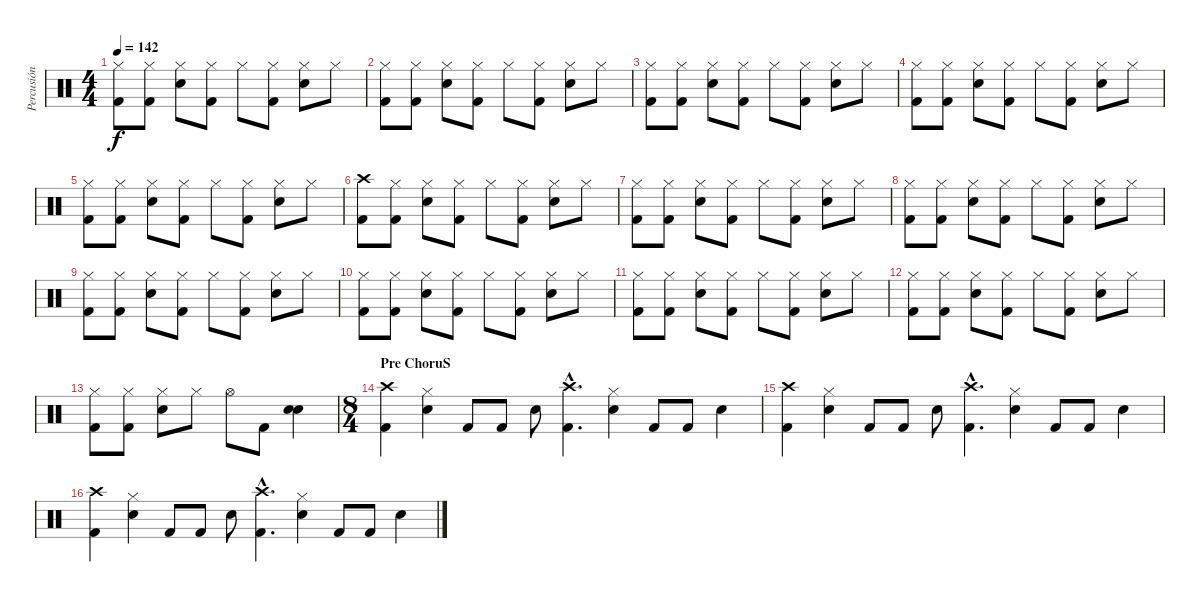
\track ("Percusión  " "Percusión ") {instrument percussion}
\staff {score}
\articulation defaults
\ts (4 4)
\tempo 142
\clef neutral
\ks c
("Hi-Hat (closed)" "Kick (hit) 2").8{dy f} ("Hi-Hat (closed)" "Kick (hit) 2").8 ("Electric Snare (hit)" "Hi-Hat (closed)").8 ("Hi-Hat (closed)" "Kick (hit) 2").8 "Hi-Hat (closed)".8 ("Hi-Hat (closed)" "Kick (hit) 2").8 ("Electric Snare (hit)" "Hi-Hat (closed)").8 "Hi-Hat (closed)".8 |
("Hi-Hat (closed)" "Kick (hit) 2").8 ("Hi-Hat (closed)" "Kick (hit) 2").8 ("Electric Snare (hit)" "Hi-Hat (closed)").8 ("Hi-Hat (closed)" "Kick (hit) 2").8 "Hi-Hat (closed)".8 ("Hi-Hat (closed)" "Kick (hit) 2").8 ("Electric Snare (hit)" "Hi-Hat (closed)").8 "Hi-Hat (closed)".8 |
("Hi-Hat (closed)" "Kick (hit) 2").8 ("Hi-Hat (closed)" "Kick (hit) 2").8 ("Electric Snare (hit)" "Hi-Hat (closed)").8 ("Hi-Hat (closed)" "Kick (hit) 2").8 "Hi-Hat (closed)".8 ("Hi-Hat (closed)" "Kick (hit) 2").8 ("Electric Snare (hit)" "Hi-Hat (closed)").8 "Hi-Hat (closed)".8 |
("Hi-Hat (closed)" "Kick (hit) 2").8 ("Hi-Hat (closed)" "Kick (hit) 2").8 ("Electric Snare (hit)" "Hi-Hat (closed)").8 ("Hi-Hat (closed)" "Kick (hit) 2").8 "Hi-Hat (closed)".8 ("Hi-Hat (closed)" "Kick (hit) 2").8 ("Electric Snare (hit)" "Hi-Hat (closed)").8 "Hi-Hat (closed)".8 |
("Hi-Hat (closed)" "Kick (hit) 2").8 ("Hi-Hat (closed)" "Kick (hit) 2").8 ("Electric Snare (hit)" "Hi-Hat (closed)").8 ("Hi-Hat (closed)" "Kick (hit) 2").8 "Hi-Hat (closed)".8 ("Hi-Hat (closed)" "Kick (hit) 2").8 ("Electric Snare (hit)" "Hi-Hat (closed)").8 "Hi-Hat (closed)".8 |
("Crash high (hit)" "Kick (hit) 2").8 ("Hi-Hat (closed)" "Kick (hit) 2").8 ("Electric Snare (hit)" "Hi-Hat (closed)").8 ("Hi-Hat (closed)" "Kick (hit) 2").8 "Hi-Hat (closed)".8 ("Hi-Hat (closed)" "Kick (hit) 2").8 ("Electric Snare (hit)" "Hi-Hat (closed)").8 "Hi-Hat (closed)".8 |
("Hi-Hat (closed)" "Kick (hit) 2").8 ("Hi-Hat (closed)" "Kick (hit) 2").8 ("Electric Snare (hit)" "Hi-Hat (closed)").8 ("Hi-Hat (closed)" "Kick (hit) 2").8 "Hi-Hat (closed)".8 ("Hi-Hat (closed)" "Kick (hit) 2").8 ("Electric Snare (hit)" "Hi-Hat (closed)").8 "Hi-Hat (closed)".8 |
("Hi-Hat (closed)" "Kick (hit) 2").8 ("Hi-Hat (closed)" "Kick (hit) 2").8 ("Electric Snare (hit)" "Hi-Hat (closed)").8 ("Hi-Hat (closed)" "Kick (hit) 2").8 "Hi-Hat (closed)".8 ("Hi-Hat (closed)" "Kick (hit) 2").8 ("Electric Snare (hit)" "Hi-Hat (closed)").8 "Hi-Hat (closed)".8 |
("Hi-Hat (closed)" "Kick (hit) 2").8 ("Hi-Hat (closed)" "Kick (hit) 2").8 ("Electric Snare (hit)" "Hi-Hat (closed)").8 ("Hi-Hat (closed)" "Kick (hit) 2").8 "Hi-Hat (closed)".8 ("Hi-Hat (closed)" "Kick (hit) 2").8 ("Electric Snare (hit)" "Hi-Hat (closed)").8 "Hi-Hat (closed)".8 |
("Hi-Hat (closed)" "Kick (hit) 2").8 ("Hi-Hat (closed)" "Kick (hit) 2").8 ("Electric Snare (hit)" "Hi-Hat (closed)").8 ("Hi-Hat (closed)" "Kick (hit) 2").8 "Hi-Hat (closed)".8 ("Hi-Hat (closed)" "Kick (hit) 2").8 ("Electric Snare (hit)" "Hi-Hat (closed)").8 "Hi-Hat (closed)".8 |
("Hi-Hat (closed)" "Kick (hit) 2").8 ("Hi-Hat (closed)" "Kick (hit) 2").8 ("Electric Snare (hit)" "Hi-Hat (closed)").8 ("Hi-Hat (closed)" "Kick (hit) 2").8 "Hi-Hat (closed)".8 ("Hi-Hat (closed)" "Kick (hit) 2").8 ("Electric Snare (hit)" "Hi-Hat (closed)").8 "Hi-Hat (closed)".8 |
("Hi-Hat (closed)" "Kick (hit) 2").8 ("Hi-Hat (closed)" "Kick (hit) 2").8 ("Electric Snare (hit)" "Hi-Hat (closed)").8 ("Hi-Hat (closed)" "Kick (hit) 2").8 "Hi-Hat (closed)".8 ("Hi-Hat (closed)" "Kick (hit) 2").8 ("Electric Snare (hit)" "Hi-Hat (closed)").8 "Hi-Hat (closed)".8 |
("Hi-Hat (closed)" "Kick (hit) 2").8 ("Hi-Hat (closed)" "Kick (hit) 2").8 ("Electric Snare (hit)" "Hi-Hat (closed)").8 "Hi-Hat (closed)".8 "Hi-Hat (open)".8 "Kick (hit) 2".8 ("Electric Snare (hit)" "Electric Snare (hit)").4 |
\ts (8 4)
\section ("" "Pre ChoruS")
("Crash high (hit)" "Kick (hit) 2").4 ("Hi-Hat (closed)" "Electric Snare (hit)").4 "Kick (hit) 2".8 "Kick (hit) 2".8 "Electric Snare (hit)".8 ("Crash high (hit)"{hac} "Kick (hit) 2"{hac}).4{d} ("Hi-Hat (closed)" "Electric Snare (hit)").4 "Kick (hit) 2".8 "Kick (hit) 2".8 "Electric Snare (hit)".4 |
("Crash high (hit)" "Kick (hit) 2").4 ("Hi-Hat (closed)" "Electric Snare (hit)").4 "Kick (hit) 2".8 "Kick (hit) 2".8 "Electric Snare (hit)".8 ("Crash high (hit)"{hac} "Kick (hit) 2"{hac}).4{d} ("Hi-Hat (closed)" "Electric Snare (hit)").4 "Kick (hit) 2".8 "Kick (hit) 2".8 "Electric Snare (hit)".4 |
("Crash high (hit)" "Kick (hit) 2").4 ("Hi-Hat (closed)" "Electric Snare (hit)").4 "Kick (hit) 2".8 "Kick (hit) 2".8 "Electric Snare (hit)".8 ("Crash high (hit)"{hac} "Kick (hit) 2"{hac}).4{d} ("Hi-Hat (closed)" "Electric Snare (hit)").4 "Kick (hit) 2".8 "Kick (hit) 2".8 "Electric Snare (hit)".4
